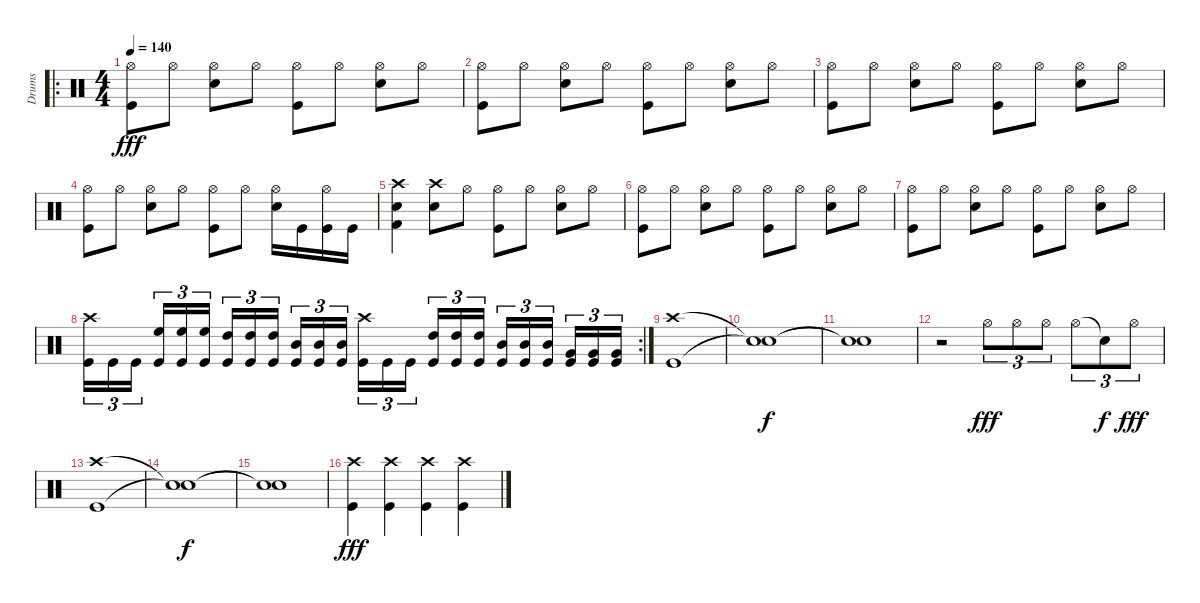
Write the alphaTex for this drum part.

\track ("Drums" "Drums") {instrument percussion}
\staff {score}
\articulation defaults
\ro
\ts (4 4)
\tempo 140
\clef neutral
\ks c
("Hi-Hat (open)" "Kick (hit)").8{dy fff} "Hi-Hat (open)".8 ("Hi-Hat (open)" "Snare (hit) 2").8 "Hi-Hat (open)".8 ("Hi-Hat (open)" "Kick (hit)").8 "Hi-Hat (open)".8 ("Hi-Hat (open)" "Snare (hit) 2").8 "Hi-Hat (open)".8 |
("Hi-Hat (open)" "Kick (hit)").8 "Hi-Hat (open)".8 ("Hi-Hat (open)" "Snare (hit) 2").8 "Hi-Hat (open)".8 ("Hi-Hat (open)" "Kick (hit)").8 "Hi-Hat (open)".8 ("Hi-Hat (open)" "Snare (hit) 2").8 "Hi-Hat (open)".8 |
("Hi-Hat (open)" "Kick (hit)").8 "Hi-Hat (open)".8 ("Hi-Hat (open)" "Snare (hit) 2").8 "Hi-Hat (open)".8 ("Hi-Hat (open)" "Kick (hit)").8 "Hi-Hat (open)".8 ("Hi-Hat (open)" "Snare (hit) 2").8 "Hi-Hat (open)".8 |
("Hi-Hat (open)" "Kick (hit)").8 "Hi-Hat (open)".8 ("Hi-Hat (open)" "Snare (hit) 2").8 "Hi-Hat (open)".8 ("Hi-Hat (open)" "Kick (hit)").8 "Hi-Hat (open)".8 ("Hi-Hat (open)" "Snare (hit) 2").16 "Kick (hit)".16 ("Kick (hit)" "Hi-Hat (open)").16 "Kick (hit)".16 |
("Kick (hit) 2" "Snare (hit) 2" "Crash high (hit)").4 ("Crash high (hit)" "Snare (hit) 2").8 "Hi-Hat (open)".8 ("Hi-Hat (open)" "Kick (hit)").8 "Hi-Hat (open)".8 ("Hi-Hat (open)" "Snare (hit) 2").8 "Hi-Hat (open)".8 |
("Hi-Hat (open)" "Kick (hit)").8 "Hi-Hat (open)".8 ("Hi-Hat (open)" "Snare (hit) 2").8 "Hi-Hat (open)".8 ("Hi-Hat (open)" "Kick (hit)").8 "Hi-Hat (open)".8 ("Hi-Hat (open)" "Snare (hit) 2").8 "Hi-Hat (open)".8 |
("Hi-Hat (open)" "Kick (hit)").8 "Hi-Hat (open)".8 ("Hi-Hat (open)" "Snare (hit) 2").8 "Hi-Hat (open)".8 ("Hi-Hat (open)" "Kick (hit)").8 "Hi-Hat (open)".8 ("Hi-Hat (open)" "Snare (hit) 2").8 "Hi-Hat (open)".8 |
\rc 2
("Kick (hit)" "Crash high (hit)").16{tu (3 2)} "Kick (hit)".16{tu (3 2)} "Kick (hit)".16{tu (3 2)} ("Kick (hit)" "High Floor Tom (hit)").16{tu (3 2)} ("Kick (hit)" "High Floor Tom (hit)").16{tu (3 2)} ("Kick (hit)" "High Floor Tom (hit)").16{tu (3 2)} ("Kick (hit)" "High Tom (hit)").16{tu (3 2)} ("Kick (hit)" "High Tom (hit)").16{tu (3 2)} ("Kick (hit)" "High Tom (hit)").16{tu (3 2)} ("Kick (hit)" "Mid Tom (hit)").16{tu (3 2)} ("Kick (hit)" "Mid Tom (hit)").16{tu (3 2)} ("Kick (hit)" "Mid Tom (hit)").16{tu (3 2)} ("Kick (hit)" "Crash high (hit)").16{tu (3 2)} "Kick (hit)".16{tu (3 2)} "Kick (hit)".16{tu (3 2)} ("Kick (hit)" "High Tom (hit)").16{tu (3 2)} ("Kick (hit)" "High Tom (hit)").16{tu (3 2)} ("Kick (hit)" "High Tom (hit)").16{tu (3 2)} ("Kick (hit)" "Mid Tom (hit)").16{tu (3 2)} ("Kick (hit)" "Mid Tom (hit)").16{tu (3 2)} ("Kick (hit)" "Mid Tom (hit)").16{tu (3 2)} ("Kick (hit)" "Very Low Tom (hit)").16{tu (3 2)} ("Kick (hit)" "Very Low Tom (hit)").16{tu (3 2)} ("Kick (hit)" "Very Low Tom (hit)").16{tu (3 2)} |
("Crash high (hit)" "Kick (hit)").1 |
("Snare (hit)"{t} "Snare (hit)"{t}).1{dy f} |
("Snare (hit)"{t} "Snare (hit)"{t}).1 |
r.2 "Hi-Hat (open)".8{tu (3 2) dy fff} "Hi-Hat (open)".8{tu (3 2)} "Hi-Hat (open)".8{tu (3 2)} "Hi-Hat (open)".8{tu (3 2)} "Snare (hit)"{t}.8{tu (3 2) dy f} "Hi-Hat (open)".8{tu (3 2) dy fff} |
("Crash high (hit)" "Kick (hit)").1 |
("Snare (hit)"{t} "Snare (hit)"{t}).1{dy f} |
("Snare (hit)"{t} "Snare (hit)"{t}).1 |
("Crash high (hit)" "Kick (hit)").4{dy fff} ("Crash high (hit)" "Kick (hit)").4 ("Crash high (hit)" "Kick (hit)").4 ("Crash high (hit)" "Kick (hit)").4
